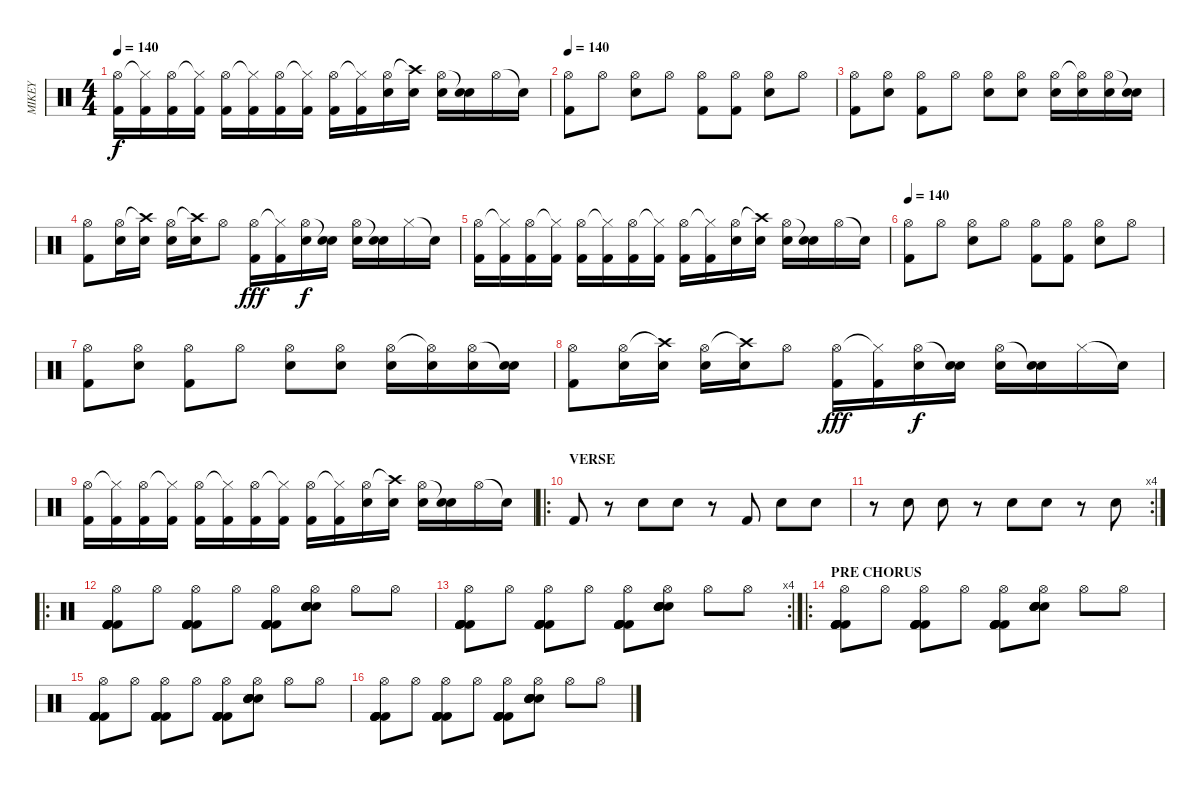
\track ("MIKEY" "MIKEY") {instrument percussion}
\staff {score}
\articulation defaults
\ts (4 4)
\tempo 140
\clef neutral
\ks c
("Hi-Hat (open)" "Kick (hit) 2").16{dy f} ("Hi-Hat (closed)"{t} "Kick (hit) 2").16 ("Hi-Hat (open)" "Kick (hit) 2").16 ("Hi-Hat (closed)"{t} "Kick (hit) 2").16 ("Hi-Hat (open)" "Kick (hit) 2").16 ("Hi-Hat (closed)"{t} "Kick (hit) 2").16 ("Hi-Hat (open)" "Kick (hit) 2").16 ("Hi-Hat (closed)"{t} "Kick (hit) 2").16 ("Hi-Hat (open)" "Kick (hit) 2").16 ("Hi-Hat (closed)"{t} "Kick (hit) 2").16 ("Hi-Hat (open)" "Electric Snare (hit)").16 ("Crash high (hit)"{t} "Electric Snare (hit)").16 ("Hi-Hat (open)" "Electric Snare (hit)").16 ("Snare (hit)"{t} "Electric Snare (hit)").16 "Hi-Hat (open)".16 "Snare (hit)"{t}.16 |
\tempo 140
("Hi-Hat (open)" "Kick (hit) 2").8 "Hi-Hat (open)".8 ("Hi-Hat (open)" "Electric Snare (hit)").8 "Hi-Hat (open)".8 ("Hi-Hat (open)" "Kick (hit) 2").8 ("Hi-Hat (open)" "Kick (hit) 2").8 ("Hi-Hat (open)" "Electric Snare (hit)").8 "Hi-Hat (open)".8 |
("Hi-Hat (open)" "Kick (hit) 2").8 ("Hi-Hat (open)" "Electric Snare (hit)").8 ("Hi-Hat (open)" "Kick (hit) 2").8 "Hi-Hat (open)".8 ("Hi-Hat (open)" "Electric Snare (hit)").8 ("Hi-Hat (open)" "Electric Snare (hit)").8 ("Hi-Hat (open)" "Electric Snare (hit)").16 ("Hi-Hat (open)"{t} "Electric Snare (hit)").16 ("Hi-Hat (open)" "Electric Snare (hit)").16 ("Snare (hit)"{t} "Electric Snare (hit)").16 |
("Hi-Hat (open)" "Kick (hit) 2").8 ("Hi-Hat (open)" "Electric Snare (hit)").16 ("Crash high (hit)"{t} "Electric Snare (hit)").16 ("Hi-Hat (open)" "Electric Snare (hit)").16 ("Crash high (hit)"{t} "Electric Snare (hit)").16 "Hi-Hat (open)".8 ("Hi-Hat (open)" "Kick (hit) 2").16{dy fff} ("Hi-Hat (closed)"{t} "Kick (hit) 2").16 ("Hi-Hat (open)" "Electric Snare (hit)").16{dy f} ("Snare (hit)"{t} "Electric Snare (hit)").16 ("Hi-Hat (open)" "Electric Snare (hit)").16 ("Snare (hit)"{t} "Electric Snare (hit)").16 "Hi-Hat (closed)".16 "Snare (hit)"{t}.16 |
("Hi-Hat (open)" "Kick (hit) 2").16 ("Hi-Hat (closed)"{t} "Kick (hit) 2").16 ("Hi-Hat (open)" "Kick (hit) 2").16 ("Hi-Hat (closed)"{t} "Kick (hit) 2").16 ("Hi-Hat (open)" "Kick (hit) 2").16 ("Hi-Hat (closed)"{t} "Kick (hit) 2").16 ("Hi-Hat (open)" "Kick (hit) 2").16 ("Hi-Hat (closed)"{t} "Kick (hit) 2").16 ("Hi-Hat (open)" "Kick (hit) 2").16 ("Hi-Hat (closed)"{t} "Kick (hit) 2").16 ("Hi-Hat (open)" "Electric Snare (hit)").16 ("Crash high (hit)"{t} "Electric Snare (hit)").16 ("Hi-Hat (open)" "Electric Snare (hit)").16 ("Snare (hit)"{t} "Electric Snare (hit)").16 "Hi-Hat (open)".16 "Snare (hit)"{t}.16 |
\tempo 140
("Hi-Hat (open)" "Kick (hit) 2").8 "Hi-Hat (open)".8 ("Hi-Hat (open)" "Electric Snare (hit)").8 "Hi-Hat (open)".8 ("Hi-Hat (open)" "Kick (hit) 2").8 ("Hi-Hat (open)" "Kick (hit) 2").8 ("Hi-Hat (open)" "Electric Snare (hit)").8 "Hi-Hat (open)".8 |
("Hi-Hat (open)" "Kick (hit) 2").8 ("Hi-Hat (open)" "Electric Snare (hit)").8 ("Hi-Hat (open)" "Kick (hit) 2").8 "Hi-Hat (open)".8 ("Hi-Hat (open)" "Electric Snare (hit)").8 ("Hi-Hat (open)" "Electric Snare (hit)").8 ("Hi-Hat (open)" "Electric Snare (hit)").16 ("Hi-Hat (open)"{t} "Electric Snare (hit)").16 ("Hi-Hat (open)" "Electric Snare (hit)").16 ("Snare (hit)"{t} "Electric Snare (hit)").16 |
("Hi-Hat (open)" "Kick (hit) 2").8 ("Hi-Hat (open)" "Electric Snare (hit)").16 ("Crash high (hit)"{t} "Electric Snare (hit)").16 ("Hi-Hat (open)" "Electric Snare (hit)").16 ("Crash high (hit)"{t} "Electric Snare (hit)").16 "Hi-Hat (open)".8 ("Hi-Hat (open)" "Kick (hit) 2").16{dy fff} ("Hi-Hat (closed)"{t} "Kick (hit) 2").16 ("Hi-Hat (open)" "Electric Snare (hit)").16{dy f} ("Snare (hit)"{t} "Electric Snare (hit)").16 ("Hi-Hat (open)" "Electric Snare (hit)").16 ("Snare (hit)"{t} "Electric Snare (hit)").16 "Hi-Hat (closed)".16 "Snare (hit)"{t}.16 |
("Hi-Hat (open)" "Kick (hit) 2").16 ("Hi-Hat (closed)"{t} "Kick (hit) 2").16 ("Hi-Hat (open)" "Kick (hit) 2").16 ("Hi-Hat (closed)"{t} "Kick (hit) 2").16 ("Hi-Hat (open)" "Kick (hit) 2").16 ("Hi-Hat (closed)"{t} "Kick (hit) 2").16 ("Hi-Hat (open)" "Kick (hit) 2").16 ("Hi-Hat (closed)"{t} "Kick (hit) 2").16 ("Hi-Hat (open)" "Kick (hit) 2").16 ("Hi-Hat (closed)"{t} "Kick (hit) 2").16 ("Hi-Hat (open)" "Electric Snare (hit)").16 ("Crash high (hit)"{t} "Electric Snare (hit)").16 ("Hi-Hat (open)" "Electric Snare (hit)").16 ("Snare (hit)"{t} "Electric Snare (hit)").16 "Hi-Hat (open)".16 "Snare (hit)"{t}.16 |
\ro
\section ("" "VERSE")
"Kick (hit) 2".8 r.8 "Electric Snare (hit)".8 "Electric Snare (hit)".8 r.8 "Kick (hit) 2".8 "Electric Snare (hit)".8 "Electric Snare (hit)".8 |
\rc 4
r.8 "Electric Snare (hit)".8 "Electric Snare (hit)".8 r.8 "Electric Snare (hit)".8 "Electric Snare (hit)".8 r.8 "Electric Snare (hit)".8 |
\ro
("Kick (hit) 2" "Kick (hit) 2" "Kick (hit) 2" "Kick (hit) 2" "Kick (hit) 2" "Hi-Hat (open)").8 "Hi-Hat (open)".8 ("Kick (hit) 2" "Kick (hit) 2" "Kick (hit) 2" "Kick (hit) 2" "Kick (hit) 2" "Hi-Hat (open)").8 "Hi-Hat (open)".8 ("Kick (hit) 2" "Kick (hit) 2" "Kick (hit) 2" "Kick (hit) 2" "Kick (hit) 2" "Hi-Hat (open)").8 ("Snare (hit) 2" "Snare (hit) 2" "Snare (hit) 2" "Snare (hit) 2" "Snare (hit) 2" "Hi-Hat (open)").8 "Hi-Hat (open)".8 "Hi-Hat (open)".8 |
\rc 4
("Kick (hit) 2" "Kick (hit) 2" "Kick (hit) 2" "Kick (hit) 2" "Kick (hit) 2" "Hi-Hat (open)").8 "Hi-Hat (open)".8 ("Kick (hit) 2" "Kick (hit) 2" "Kick (hit) 2" "Kick (hit) 2" "Kick (hit) 2" "Hi-Hat (open)").8 "Hi-Hat (open)".8 ("Kick (hit) 2" "Kick (hit) 2" "Kick (hit) 2" "Kick (hit) 2" "Kick (hit) 2" "Hi-Hat (open)").8 ("Snare (hit) 2" "Snare (hit) 2" "Snare (hit) 2" "Snare (hit) 2" "Snare (hit) 2" "Hi-Hat (open)").8 "Hi-Hat (open)".8 "Hi-Hat (open)".8 |
\ro
\section ("" "PRE CHORUS")
("Kick (hit) 2" "Kick (hit) 2" "Kick (hit) 2" "Kick (hit) 2" "Kick (hit) 2" "Hi-Hat (open)").8 "Hi-Hat (open)".8 ("Kick (hit) 2" "Kick (hit) 2" "Kick (hit) 2" "Kick (hit) 2" "Kick (hit) 2" "Hi-Hat (open)").8 "Hi-Hat (open)".8 ("Kick (hit) 2" "Kick (hit) 2" "Kick (hit) 2" "Kick (hit) 2" "Kick (hit) 2" "Hi-Hat (open)").8 ("Snare (hit) 2" "Snare (hit) 2" "Snare (hit) 2" "Snare (hit) 2" "Snare (hit) 2" "Hi-Hat (open)").8 "Hi-Hat (open)".8 "Hi-Hat (open)".8 |
("Kick (hit) 2" "Kick (hit) 2" "Kick (hit) 2" "Kick (hit) 2" "Kick (hit) 2" "Hi-Hat (open)").8 "Hi-Hat (open)".8 ("Kick (hit) 2" "Kick (hit) 2" "Kick (hit) 2" "Kick (hit) 2" "Kick (hit) 2" "Hi-Hat (open)").8 "Hi-Hat (open)".8 ("Kick (hit) 2" "Kick (hit) 2" "Kick (hit) 2" "Kick (hit) 2" "Kick (hit) 2" "Hi-Hat (open)").8 ("Snare (hit) 2" "Snare (hit) 2" "Snare (hit) 2" "Snare (hit) 2" "Snare (hit) 2" "Hi-Hat (open)").8 "Hi-Hat (open)".8 "Hi-Hat (open)".8 |
("Kick (hit) 2" "Kick (hit) 2" "Kick (hit) 2" "Kick (hit) 2" "Kick (hit) 2" "Hi-Hat (open)").8 "Hi-Hat (open)".8 ("Kick (hit) 2" "Kick (hit) 2" "Kick (hit) 2" "Kick (hit) 2" "Kick (hit) 2" "Hi-Hat (open)").8 "Hi-Hat (open)".8 ("Kick (hit) 2" "Kick (hit) 2" "Kick (hit) 2" "Kick (hit) 2" "Kick (hit) 2" "Hi-Hat (open)").8 ("Snare (hit) 2" "Snare (hit) 2" "Snare (hit) 2" "Snare (hit) 2" "Snare (hit) 2" "Hi-Hat (open)").8 "Hi-Hat (open)".8 "Hi-Hat (open)".8
